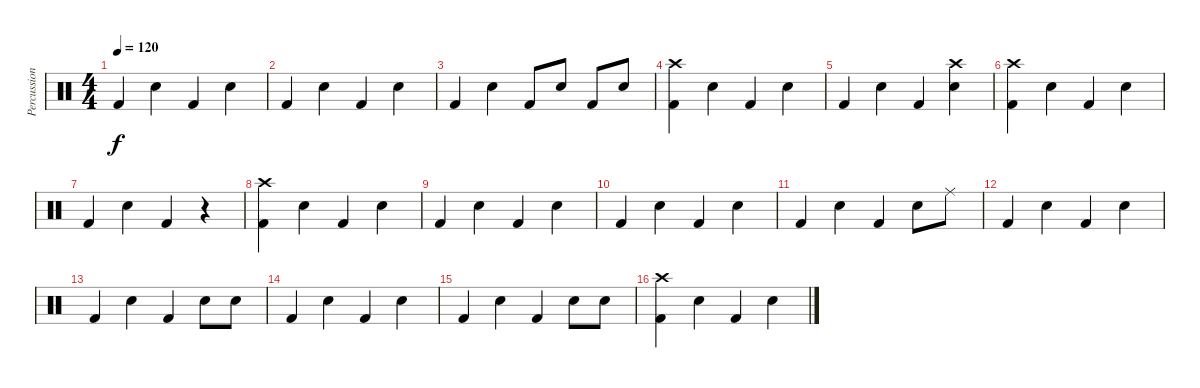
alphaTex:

\track ("Percussion" "Percussion") {instrument percussion}
\staff {score}
\articulation defaults
\ts (4 4)
\tempo 120
\clef neutral
\ks c "Kick (hit) 2".4{dy f} "Electric Snare (hit)".4 "Kick (hit) 2".4 "Electric Snare (hit)".4
|
"Kick (hit) 2".4 "Electric Snare (hit)".4 "Kick (hit) 2".4 "Electric Snare (hit)".4 |
"Kick (hit) 2".4 "Snare (hit) 2".4 "Kick (hit) 2".8 "Snare (hit) 2".8 "Kick (hit) 2".8 "Snare (hit) 2".8 |
("Crash high (hit)" "Kick (hit) 2").4 "Electric Snare (hit)".4 "Kick (hit) 2".4 "Electric Snare (hit)".4 |
"Kick (hit) 2".4 "Electric Snare (hit)".4 "Kick (hit) 2".4 ("Crash high (hit)" "Electric Snare (hit)").4 |
("Crash high (hit)" "Kick (hit) 2").4 "Electric Snare (hit)".4 "Kick (hit) 2".4 "Electric Snare (hit)".4 |
"Kick (hit) 2".4 "Electric Snare (hit)".4 "Kick (hit) 2".4 r.4 |
("Crash high (hit)" "Kick (hit) 2").4 "Electric Snare (hit)".4 "Kick (hit) 2".4 "Electric Snare (hit)".4 |
"Kick (hit) 2".4 "Electric Snare (hit)".4 "Kick (hit) 2".4 "Electric Snare (hit)".4 |
"Kick (hit) 2".4 "Electric Snare (hit)".4 "Kick (hit) 2".4 "Electric Snare (hit)".4 |
"Kick (hit) 2".4 "Electric Snare (hit)".4 "Kick (hit) 2".4 "Electric Snare (hit)".8 "Ride (middle)".8 |
"Kick (hit) 2".4 "Electric Snare (hit)".4 "Kick (hit) 2".4 "Electric Snare (hit)".4 |
"Kick (hit) 2".4 "Electric Snare (hit)".4 "Kick (hit) 2".4 "Electric Snare (hit)".8 "Electric Snare (hit)".8 |
"Kick (hit) 2".4 "Electric Snare (hit)".4 "Kick (hit) 2".4 "Electric Snare (hit)".4 |
"Kick (hit) 2".4 "Electric Snare (hit)".4 "Kick (hit) 2".4 "Electric Snare (hit)".8 "Electric Snare (hit)".8 |
("Crash high (hit)" "Kick (hit) 2").4 "Electric Snare (hit)".4 "Kick (hit) 2".4 "Electric Snare (hit)".4
